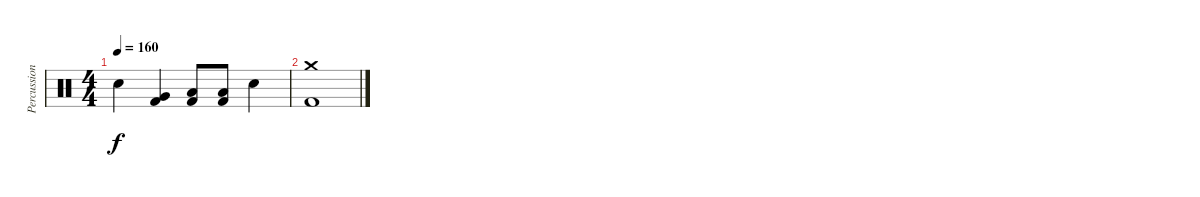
\track ("Percussion" "Percussion") {instrument percussion}
\staff {score}
\articulation defaults
\ts (4 4)
\tempo 160
\clef neutral
\ks c "Snare (hit) 2".4{dy f}
("Very Low Tom (hit)" "Kick (hit) 2").4 ("Low Floor Tom (hit)" "Kick (hit) 2").8 ("Low Floor Tom (hit)" "Kick (hit) 2").8 "Snare (hit) 2".4 |
("Crash medium (hit)" "Kick (hit) 2").1
